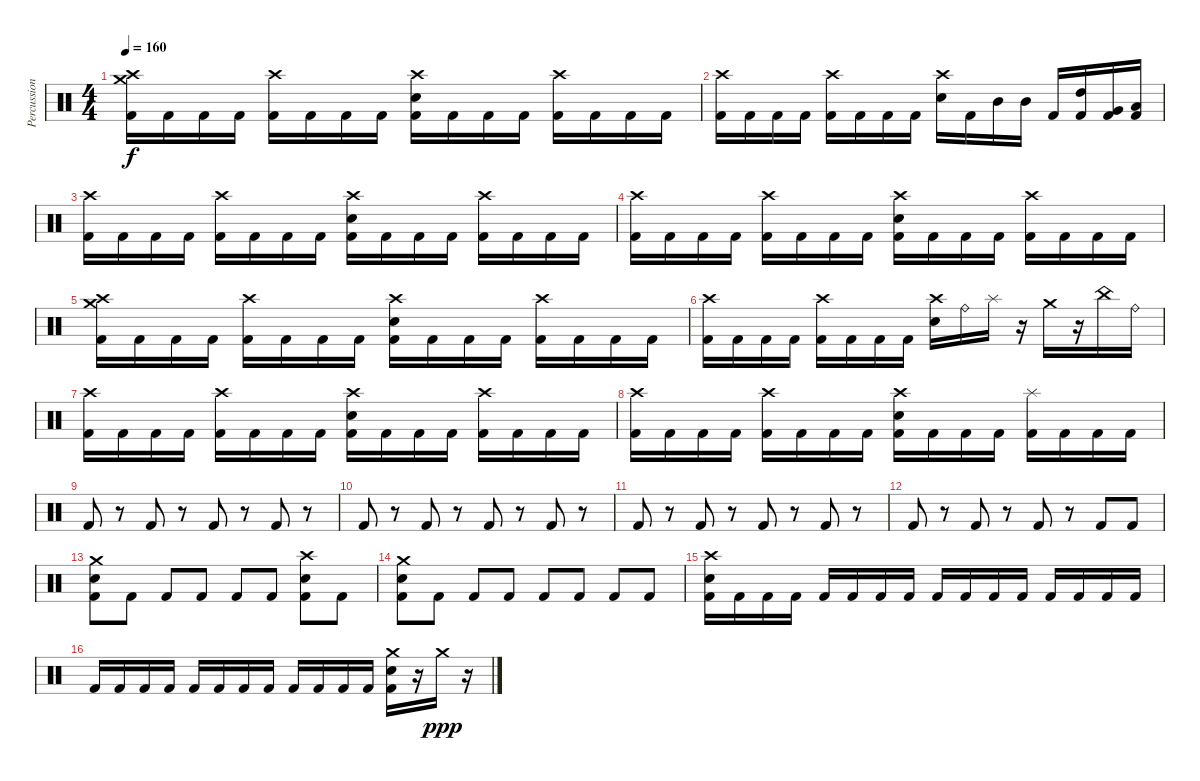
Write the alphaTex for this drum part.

\track ("Percussion" "Percussion") {instrument percussion}
\staff {score}
\articulation defaults
\ts (4 4)
\tempo 160
\clef neutral
\ks c
("Crash high (hit)" "Crash medium (hit)" "Kick (hit) 2").16{dy f} "Kick (hit) 2".16 "Kick (hit) 2".16 "Kick (hit) 2".16 ("Crash high (hit)" "Kick (hit) 2").16 "Kick (hit) 2".16 "Kick (hit) 2".16 "Kick (hit) 2".16 ("Crash high (hit)" "Snare (hit) 2" "Kick (hit) 2").16 "Kick (hit) 2".16 "Kick (hit) 2".16 "Kick (hit) 2".16 ("Crash high (hit)" "Kick (hit) 2").16 "Kick (hit) 2".16 "Kick (hit) 2".16 "Kick (hit) 2".16 |
("Crash high (hit)" "Kick (hit) 2").16 "Kick (hit) 2".16 "Kick (hit) 2".16 "Kick (hit) 2".16 ("Crash high (hit)" "Kick (hit) 2").16 "Kick (hit) 2".16 "Kick (hit) 2".16 "Kick (hit) 2".16 ("Crash high (hit)" "Snare (hit) 2").16 "Kick (hit) 2".16 "Mid Tom (hit)".16 "Mid Tom (hit)".16 "Kick (hit) 2".16 ("High Tom (hit)" "Kick (hit) 2").16 ("Very Low Tom (hit)" "Kick (hit) 2").16 ("Low Floor Tom (hit)" "Kick (hit) 2").16 |
("Crash high (hit)" "Kick (hit) 2").16 "Kick (hit) 2".16 "Kick (hit) 2".16 "Kick (hit) 2".16 ("Crash high (hit)" "Kick (hit) 2").16 "Kick (hit) 2".16 "Kick (hit) 2".16 "Kick (hit) 2".16 ("Crash high (hit)" "Snare (hit) 2" "Kick (hit) 2").16 "Kick (hit) 2".16 "Kick (hit) 2".16 "Kick (hit) 2".16 ("Crash high (hit)" "Kick (hit) 2").16 "Kick (hit) 2".16 "Kick (hit) 2".16 "Kick (hit) 2".16 |
("Crash high (hit)" "Kick (hit) 2").16 "Kick (hit) 2".16 "Kick (hit) 2".16 "Kick (hit) 2".16 ("Crash high (hit)" "Kick (hit) 2").16 "Kick (hit) 2".16 "Kick (hit) 2".16 "Kick (hit) 2".16 ("Crash high (hit)" "Snare (hit) 2" "Kick (hit) 2").16 "Kick (hit) 2".16 "Kick (hit) 2".16 "Kick (hit) 2".16 ("Crash high (hit)" "Kick (hit) 2").16 "Kick (hit) 2".16 "Kick (hit) 2".16 "Kick (hit) 2".16 |
("Crash high (hit)" "Crash medium (hit)" "Kick (hit) 2").16 "Kick (hit) 2".16 "Kick (hit) 2".16 "Kick (hit) 2".16 ("Crash high (hit)" "Kick (hit) 2").16 "Kick (hit) 2".16 "Kick (hit) 2".16 "Kick (hit) 2".16 ("Crash high (hit)" "Snare (hit) 2" "Kick (hit) 2").16 "Kick (hit) 2".16 "Kick (hit) 2".16 "Kick (hit) 2".16 ("Crash high (hit)" "Kick (hit) 2").16 "Kick (hit) 2".16 "Kick (hit) 2".16 "Kick (hit) 2".16 |
("Crash high (hit)" "Kick (hit) 2").16 "Kick (hit) 2".16 "Kick (hit) 2".16 "Kick (hit) 2".16 ("Crash high (hit)" "Kick (hit) 2").16 "Kick (hit) 2".16 "Kick (hit) 2".16 "Kick (hit) 2".16 ("Crash high (hit)" "Snare (hit) 2").16 "Ride (bell)".16 "Splash (hit)".16 r.16 "Crash medium (hit)".16 r.16 "China (hit)".16 "Ride (bell)".16 |
("Crash high (hit)" "Kick (hit) 2").16 "Kick (hit) 2".16 "Kick (hit) 2".16 "Kick (hit) 2".16 ("Crash high (hit)" "Kick (hit) 2").16 "Kick (hit) 2".16 "Kick (hit) 2".16 "Kick (hit) 2".16 ("Crash high (hit)" "Snare (hit) 2" "Kick (hit) 2").16 "Kick (hit) 2".16 "Kick (hit) 2".16 "Kick (hit) 2".16 ("Crash high (hit)" "Kick (hit) 2").16 "Kick (hit) 2".16 "Kick (hit) 2".16 "Kick (hit) 2".16 |
("Crash high (hit)" "Kick (hit) 2").16 "Kick (hit) 2".16 "Kick (hit) 2".16 "Kick (hit) 2".16 ("Crash high (hit)" "Kick (hit) 2").16 "Kick (hit) 2".16 "Kick (hit) 2".16 "Kick (hit) 2".16 ("Crash high (hit)" "Snare (hit) 2" "Kick (hit) 2").16 "Kick (hit) 2".16 "Kick (hit) 2".16 "Kick (hit) 2".16 ("Splash (hit)" "Kick (hit) 2").16 "Kick (hit) 2".16 "Kick (hit) 2".16 "Kick (hit) 2".16 |
"Kick (hit) 2".8 r.8 "Kick (hit) 2".8 r.8 "Kick (hit) 2".8 r.8 "Kick (hit) 2".8 r.8 |
"Kick (hit) 2".8 r.8 "Kick (hit) 2".8 r.8 "Kick (hit) 2".8 r.8 "Kick (hit) 2".8 r.8 |
"Kick (hit) 2".8 r.8 "Kick (hit) 2".8 r.8 "Kick (hit) 2".8 r.8 "Kick (hit) 2".8 r.8 |
"Kick (hit) 2".8 r.8 "Kick (hit) 2".8 r.8 "Kick (hit) 2".8 r.8 "Kick (hit) 2".8 "Kick (hit) 2".8 |
("Crash medium (hit)" "Snare (hit) 2" "Kick (hit) 2").8 "Kick (hit) 2".8 "Kick (hit) 2".8 "Kick (hit) 2".8 "Kick (hit) 2".8 "Kick (hit) 2".8 ("Crash high (hit)" "Snare (hit) 2" "Kick (hit) 2").8 "Kick (hit) 2".8 |
("Crash medium (hit)" "Snare (hit) 2" "Kick (hit) 2").8 "Kick (hit) 2".8 "Kick (hit) 2".8 "Kick (hit) 2".8 "Kick (hit) 2".8 "Kick (hit) 2".8 "Kick (hit) 2".8 "Kick (hit) 2".8 |
("Crash high (hit)" "Snare (hit) 2" "Kick (hit) 2").16 "Kick (hit) 2".16 "Kick (hit) 2".16 "Kick (hit) 2".16 "Kick (hit) 2".16 "Kick (hit) 2".16 "Kick (hit) 2".16 "Kick (hit) 2".16 "Kick (hit) 2".16 "Kick (hit) 2".16 "Kick (hit) 2".16 "Kick (hit) 2".16 "Kick (hit) 2".16 "Kick (hit) 2".16 "Kick (hit) 2".16 "Kick (hit) 2".16 |
"Kick (hit) 2".16 "Kick (hit) 2".16 "Kick (hit) 2".16 "Kick (hit) 2".16 "Kick (hit) 2".16 "Kick (hit) 2".16 "Kick (hit) 2".16 "Kick (hit) 2".16 "Kick (hit) 2".16 "Kick (hit) 2".16 "Kick (hit) 2".16 "Kick (hit) 2".16 ("Crash medium (hit)" "Snare (hit) 2" "Kick (hit) 2").16 r.16 "Crash medium (hit)".16{dy ppp} r.16
